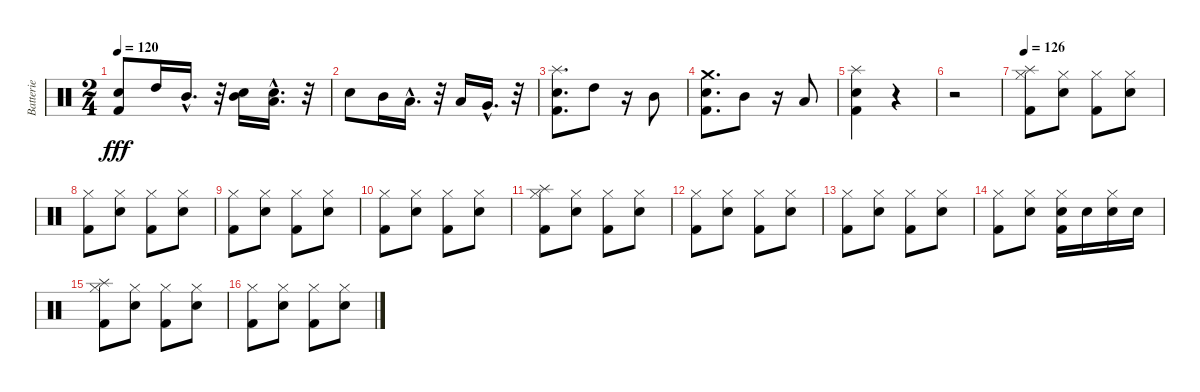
\track ("Batterie" "Batterie") {instrument percussion}
\staff {score}
\articulation defaults
\ts (2 4)
\tempo 120
\clef neutral
\ks c
("Kick (hit) 2" "Electric Snare (hit)").8{dy fff} "High Tom (hit)".16 "Mid Tom (hit)"{hac}.16{d} r.32 ("Mid Tom (hit)" "Electric Snare (hit)").16 ("Low Tom (hit)"{hac} "Electric Snare (hit)"{hac}).16{d} r.32 |
"Electric Snare (hit)".8 "Mid Tom (hit)".16 "Low Tom (hit)"{hac}.16{d} r.32 "Low Tom (hit)".16 "Very Low Tom (hit)"{hac}.16{d} r.32 |
("Kick (hit) 2" "Electric Snare (hit)" "Splash (hit)").8{d} "High Tom (hit)".8 r.16 "Mid Tom (hit)".8 |
("Kick (hit) 2" "Electric Snare (hit)" "Crash medium (hit)").8{d} "Mid Tom (hit)".8 r.16 "Low Tom (hit)".8 |
("Kick (hit) 2" "Splash (hit)" "Electric Snare (hit)").4 r.4 |
r.2 |
\tempo 126
("Splash (hit)" "Hi-Hat (closed)" "Kick (hit) 2").8 ("Hi-Hat (closed)" "Electric Snare (hit)").8 ("Hi-Hat (closed)" "Kick (hit) 2").8 ("Hi-Hat (closed)" "Electric Snare (hit)").8 |
("Hi-Hat (closed)" "Kick (hit) 2").8 ("Hi-Hat (closed)" "Electric Snare (hit)").8 ("Hi-Hat (closed)" "Kick (hit) 2").8 ("Hi-Hat (closed)" "Electric Snare (hit)").8 |
("Hi-Hat (closed)" "Kick (hit) 2").8 ("Hi-Hat (closed)" "Electric Snare (hit)").8 ("Hi-Hat (closed)" "Kick (hit) 2").8 ("Hi-Hat (closed)" "Electric Snare (hit)").8 |
("Hi-Hat (closed)" "Kick (hit) 2").8 ("Hi-Hat (closed)" "Electric Snare (hit)").8 ("Hi-Hat (closed)" "Kick (hit) 2").8 ("Hi-Hat (closed)" "Electric Snare (hit)").8 |
("Splash (hit)" "Hi-Hat (closed)" "Kick (hit) 2").8 ("Hi-Hat (closed)" "Electric Snare (hit)").8 ("Hi-Hat (closed)" "Kick (hit) 2").8 ("Hi-Hat (closed)" "Electric Snare (hit)").8 |
("Hi-Hat (closed)" "Kick (hit) 2").8 ("Hi-Hat (closed)" "Electric Snare (hit)").8 ("Hi-Hat (closed)" "Kick (hit) 2").8 ("Hi-Hat (closed)" "Electric Snare (hit)").8 |
("Hi-Hat (closed)" "Kick (hit) 2").8 ("Hi-Hat (closed)" "Electric Snare (hit)").8 ("Hi-Hat (closed)" "Kick (hit) 2").8 ("Hi-Hat (closed)" "Electric Snare (hit)").8 |
("Hi-Hat (closed)" "Kick (hit) 2").8 ("Hi-Hat (closed)" "Electric Snare (hit)").8 ("Electric Snare (hit)" "Hi-Hat (closed)" "Kick (hit) 2").16 "Electric Snare (hit)".16 ("Electric Snare (hit)" "Hi-Hat (closed)").16 "Electric Snare (hit)".16 |
("Splash (hit)" "Hi-Hat (closed)" "Kick (hit) 2").8 ("Hi-Hat (closed)" "Electric Snare (hit)").8 ("Hi-Hat (closed)" "Kick (hit) 2").8 ("Hi-Hat (closed)" "Electric Snare (hit)").8 |
("Hi-Hat (closed)" "Kick (hit) 2").8 ("Hi-Hat (closed)" "Electric Snare (hit)").8 ("Hi-Hat (closed)" "Kick (hit) 2").8 ("Hi-Hat (closed)" "Electric Snare (hit)").8
